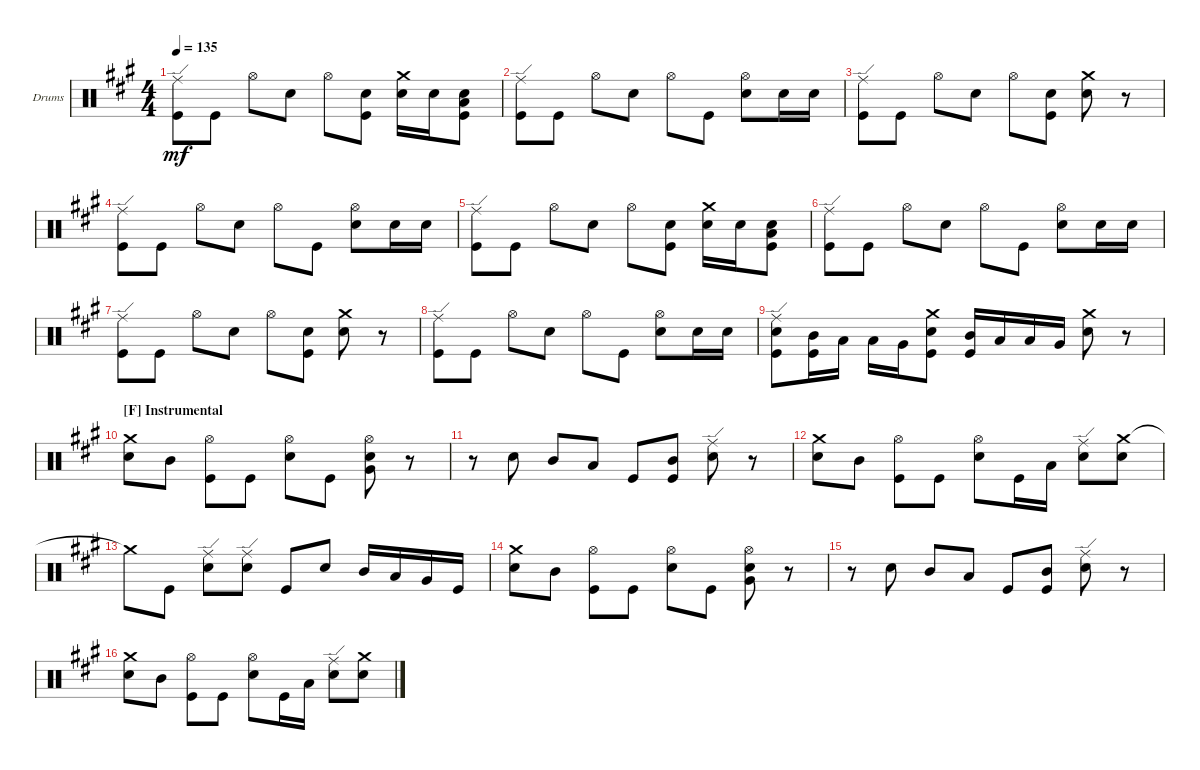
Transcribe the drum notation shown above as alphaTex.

\defaultSystemsLayout 4
\bracketExtendMode groupsimilarinstruments
\firstSystemTrackNameOrientation horizontal
\otherSystemsTrackNameOrientation horizontal
\track ("Drums" "Drums") {instrument percussion}
\staff {score}
\articulation defaults
\ts (4 4)
\tempo 135
\clef neutral
\ks f#minor
("Ride (edge)" "Kick (hit)").8{dy mf} "Kick (hit)".8 "Hi-Hat (open)".8 "Snare (hit) 2".8 "Hi-Hat (open)".8 ("Snare (hit) 2" "Kick (hit)").8 ("Crash medium (hit)" "Snare (hit) 2").16 "Snare (hit) 2".16 ("Low Tom (hit)" "Snare (hit) 2" "Kick (hit)").8 |
("Ride (edge)" "Kick (hit)").8 "Kick (hit)".8 "Hi-Hat (open)".8 "Snare (hit) 2".8 "Hi-Hat (open)".8 "Kick (hit)".8 ("Hi-Hat (open)" "Snare (hit) 2").8 "Snare (hit) 2".16 "Snare (hit) 2".16 |
("Ride (edge)" "Kick (hit)").8 "Kick (hit)".8 "Hi-Hat (open)".8 "Snare (hit) 2".8 "Hi-Hat (open)".8 ("Snare (hit) 2" "Kick (hit)").8 ("Crash medium (hit)" "Snare (hit) 2").8 r.8 |
("Ride (edge)" "Kick (hit)").8 "Kick (hit)".8 "Hi-Hat (open)".8 "Snare (hit) 2".8 "Hi-Hat (open)".8 "Kick (hit)".8 ("Hi-Hat (open)" "Snare (hit) 2").8 "Snare (hit) 2".16 "Snare (hit) 2".16 |
("Ride (edge)" "Kick (hit)").8 "Kick (hit)".8 "Hi-Hat (open)".8 "Snare (hit) 2".8 "Hi-Hat (open)".8 ("Snare (hit) 2" "Kick (hit)").8 ("Crash medium (hit)" "Snare (hit) 2").16 "Snare (hit) 2".16 ("Low Tom (hit)" "Snare (hit) 2" "Kick (hit)").8 |
("Ride (edge)" "Kick (hit)").8 "Kick (hit)".8 "Hi-Hat (open)".8 "Snare (hit) 2".8 "Hi-Hat (open)".8 "Kick (hit)".8 ("Hi-Hat (open)" "Snare (hit) 2").8 "Snare (hit) 2".16 "Snare (hit) 2".16 |
("Ride (edge)" "Kick (hit)").8 "Kick (hit)".8 "Hi-Hat (open)".8 "Snare (hit) 2".8 "Hi-Hat (open)".8 ("Snare (hit) 2" "Kick (hit)").8 ("Crash medium (hit)" "Snare (hit) 2").8 r.8 |
("Ride (edge)" "Kick (hit)").8 "Kick (hit)".8 "Hi-Hat (open)".8 "Snare (hit) 2".8 "Hi-Hat (open)".8 "Kick (hit)".8 ("Hi-Hat (open)" "Snare (hit) 2").8 "Snare (hit) 2".16 "Snare (hit) 2".16 |
("Snare (hit) 2" "Kick (hit)" "Ride (edge)").8 ("Mid Tom (hit)" "Kick (hit)").16 "Low Tom (hit)".16 "Low Tom (hit)".16 "Very Low Tom (hit)".16 ("Snare (hit) 2" "Kick (hit)" "Crash medium (hit)").8 ("Mid Tom (hit)" "Kick (hit)").16 "Low Tom (hit)".16 "Low Tom (hit)".16 "Very Low Tom (hit)".16 ("Snare (hit) 2" "Crash medium (hit)").8 r.8 |
\section ("F" "Instrumental")
("Crash medium (hit)" "Snare (hit) 2").8 "Mid Tom (hit)".8 ("Hi-Hat (open)" "Kick (hit)").8 "Kick (hit)".8 ("Hi-Hat (open)" "Snare (hit) 2").8 "Kick (hit)".8 ("Hi-Hat (open)" "Snare (hit) 2" "Very Low Tom (hit)").8 r.8 |
r.8 "Snare (hit) 2".8 "Mid Tom (hit)".8 "Low Tom (hit)".8 "Kick (hit)".8 ("Kick (hit)" "Mid Tom (hit)").8 ("Ride (edge)" "Snare (hit) 2").8 r.8 |
("Crash medium (hit)" "Snare (hit) 2").8 "Mid Tom (hit)".8 ("Hi-Hat (open)" "Kick (hit)").8 "Kick (hit)".8 ("Hi-Hat (open)" "Snare (hit) 2").8 "Kick (hit)".16 "Low Tom (hit)".16 ("Ride (edge)" "Snare (hit) 2").8 ("Crash medium (hit)" "Snare (hit) 2").8 |
"Crash medium (hit)"{t}.8 "Kick (hit)".8 ("Ride (edge)" "Snare (hit) 2").8 ("Ride (edge)" "Snare (hit) 2").8 "Kick (hit)".8 "Snare (hit) 2".8 "Mid Tom (hit)".16 "Low Tom (hit)".16 "Very Low Tom (hit)".16 "Kick (hit)".16 |
("Crash medium (hit)" "Snare (hit) 2").8 "Mid Tom (hit)".8 ("Hi-Hat (open)" "Kick (hit)").8 "Kick (hit)".8 ("Hi-Hat (open)" "Snare (hit) 2").8 "Kick (hit)".8 ("Hi-Hat (open)" "Snare (hit) 2" "Very Low Tom (hit)").8 r.8 |
r.8 "Snare (hit) 2".8 "Mid Tom (hit)".8 "Low Tom (hit)".8 "Kick (hit)".8 ("Kick (hit)" "Mid Tom (hit)").8 ("Ride (edge)" "Snare (hit) 2").8 r.8 |
("Crash medium (hit)" "Snare (hit) 2").8 "Mid Tom (hit)".8 ("Hi-Hat (open)" "Kick (hit)").8 "Kick (hit)".8 ("Hi-Hat (open)" "Snare (hit) 2").8 "Kick (hit)".16 "Low Tom (hit)".16 ("Ride (edge)" "Snare (hit) 2").8 ("Crash medium (hit)" "Snare (hit) 2").8
